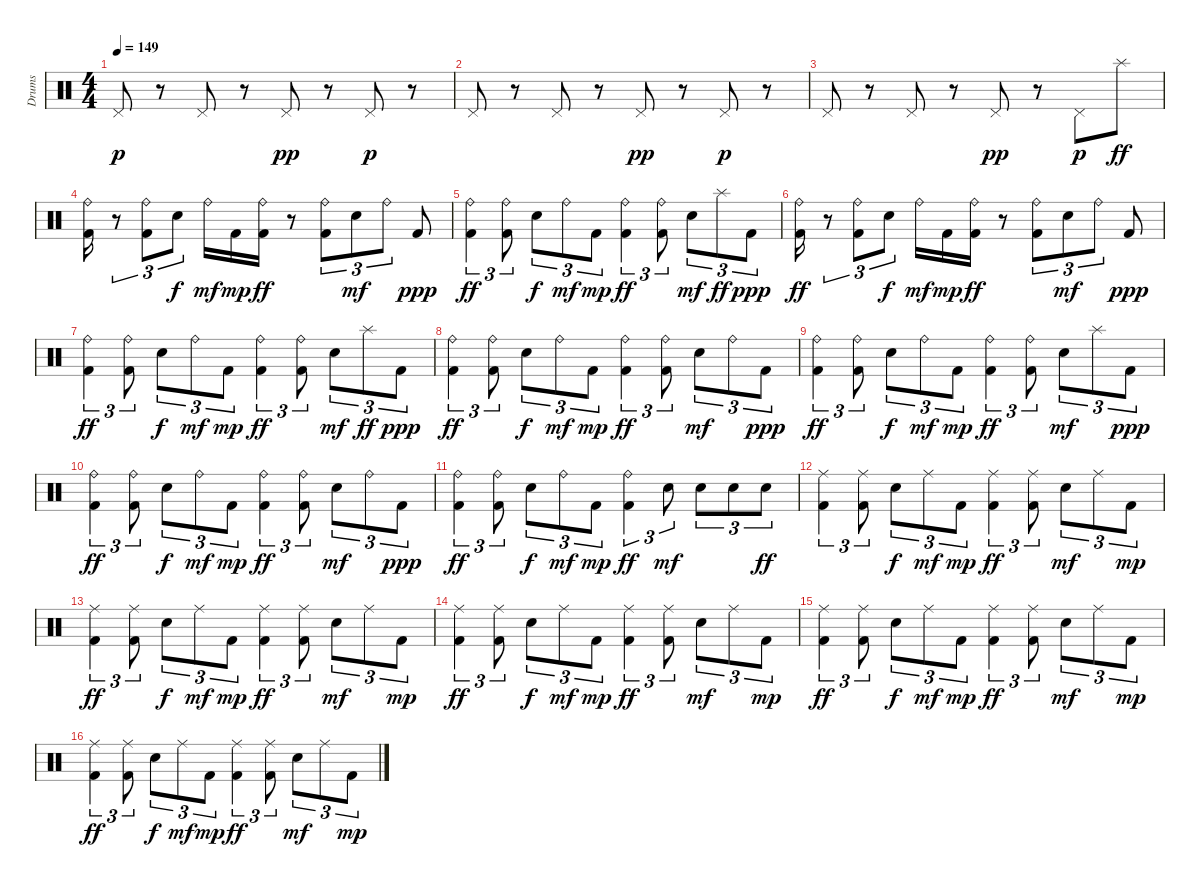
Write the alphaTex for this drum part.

\track ("Drums" "Drums") {instrument percussion}
\staff {score}
\articulation defaults
\ts (4 4)
\tempo 149
\clef neutral
\ks c "Pedal Hi-Hat (hit)".8{dy p}
r.8 "Pedal Hi-Hat (hit)".8 r.8 "Pedal Hi-Hat (hit)".8{dy pp} r.8 "Pedal Hi-Hat (hit)".8{dy p} r.8 |
"Pedal Hi-Hat (hit)".8 r.8 "Pedal Hi-Hat (hit)".8 r.8 "Pedal Hi-Hat (hit)".8{dy pp} r.8 "Pedal Hi-Hat (hit)".8{dy p} r.8 |
"Pedal Hi-Hat (hit)".8 r.8 "Pedal Hi-Hat (hit)".8 r.8 "Pedal Hi-Hat (hit)".8{dy pp} r.8 "Pedal Hi-Hat (hit)".8{dy p} "Splash (hit)".8{dy ff} |
("Kick (hit) 2" "Ride (bell)").16 r.8{tu (3 2)} ("Kick (hit) 2" "Ride (bell)").8{tu (3 2)} "Snare (hit) 2".8{tu (3 2) dy f} "Ride (bell)".16{dy mf} "Kick (hit) 2".16{dy mp} ("Kick (hit) 2" "Ride (bell)").16{dy ff} r.8 ("Kick (hit) 2" "Ride (bell)").8{tu (3 2)} "Snare (hit) 2".8{tu (3 2) dy mf} "Ride (bell)".8{tu (3 2)} "Kick (hit) 2".8{dy ppp} |
("Kick (hit) 2" "Ride (bell)").4{tu (3 2) dy ff} ("Kick (hit) 2" "Ride (bell)").8{tu (3 2)} "Snare (hit) 2".8{tu (3 2) dy f} "Ride (bell)".8{tu (3 2) dy mf} "Kick (hit) 2".8{tu (3 2) dy mp} ("Kick (hit) 2" "Ride (bell)").4{tu (3 2) dy ff} ("Kick (hit) 2" "Ride (bell)").8{tu (3 2)} "Snare (hit) 2".8{tu (3 2) dy mf} "Splash (hit)".8{tu (3 2) dy ff} "Kick (hit) 2".8{tu (3 2) dy ppp} |
("Kick (hit) 2" "Ride (bell)").16{dy ff} r.8{tu (3 2)} ("Kick (hit) 2" "Ride (bell)").8{tu (3 2)} "Snare (hit) 2".8{tu (3 2) dy f} "Ride (bell)".16{dy mf} "Kick (hit) 2".16{dy mp} ("Kick (hit) 2" "Ride (bell)").16{dy ff} r.8 ("Kick (hit) 2" "Ride (bell)").8{tu (3 2)} "Snare (hit) 2".8{tu (3 2) dy mf} "Ride (bell)".8{tu (3 2)} "Kick (hit) 2".8{dy ppp} |
("Kick (hit) 2" "Ride (bell)").4{tu (3 2) dy ff} ("Kick (hit) 2" "Ride (bell)").8{tu (3 2)} "Snare (hit) 2".8{tu (3 2) dy f} "Ride (bell)".8{tu (3 2) dy mf} "Kick (hit) 2".8{tu (3 2) dy mp} ("Kick (hit) 2" "Ride (bell)").4{tu (3 2) dy ff} ("Kick (hit) 2" "Ride (bell)").8{tu (3 2)} "Snare (hit) 2".8{tu (3 2) dy mf} "Splash (hit)".8{tu (3 2) dy ff} "Kick (hit) 2".8{tu (3 2) dy ppp} |
("Kick (hit) 2" "Ride (bell)").4{tu (3 2) dy ff} ("Kick (hit) 2" "Ride (bell)").8{tu (3 2)} "Snare (hit) 2".8{tu (3 2) dy f} "Ride (bell)".8{tu (3 2) dy mf} "Kick (hit) 2".8{tu (3 2) dy mp} ("Kick (hit) 2" "Ride (bell)").4{tu (3 2) dy ff} ("Kick (hit) 2" "Ride (bell)").8{tu (3 2)} "Snare (hit) 2".8{tu (3 2) dy mf} "Ride (bell)".8{tu (3 2)} "Kick (hit) 2".8{tu (3 2) dy ppp} |
("Kick (hit) 2" "Ride (bell)").4{tu (3 2) dy ff} ("Kick (hit) 2" "Ride (bell)").8{tu (3 2)} "Snare (hit) 2".8{tu (3 2) dy f} "Ride (bell)".8{tu (3 2) dy mf} "Kick (hit) 2".8{tu (3 2) dy mp} ("Kick (hit) 2" "Ride (bell)").4{tu (3 2) dy ff} ("Kick (hit) 2" "Ride (bell)").8{tu (3 2)} "Snare (hit) 2".8{tu (3 2) dy mf} "Splash (hit)".8{tu (3 2)} "Kick (hit) 2".8{tu (3 2) dy ppp} |
("Kick (hit) 2" "Ride (bell)").4{tu (3 2) dy ff} ("Kick (hit) 2" "Ride (bell)").8{tu (3 2)} "Snare (hit) 2".8{tu (3 2) dy f} "Ride (bell)".8{tu (3 2) dy mf} "Kick (hit) 2".8{tu (3 2) dy mp} ("Kick (hit) 2" "Ride (bell)").4{tu (3 2) dy ff} ("Kick (hit) 2" "Ride (bell)").8{tu (3 2)} "Snare (hit) 2".8{tu (3 2) dy mf} "Ride (bell)".8{tu (3 2)} "Kick (hit) 2".8{tu (3 2) dy ppp} |
("Kick (hit) 2" "Ride (bell)").4{tu (3 2) dy ff} ("Kick (hit) 2" "Ride (bell)").8{tu (3 2)} "Snare (hit) 2".8{tu (3 2) dy f} "Ride (bell)".8{tu (3 2) dy mf} "Kick (hit) 2".8{tu (3 2) dy mp} ("Kick (hit) 2" "Ride (bell)").4{tu (3 2) dy ff} "Snare (hit) 2".8{tu (3 2) dy mf} "Snare (hit) 2".8{tu (3 2)} "Snare (hit) 2".8{tu (3 2)} "Snare (hit) 2".8{tu (3 2) dy ff} |
("Kick (hit) 2" "Ride (middle)").4{tu (3 2)} ("Kick (hit) 2" "Ride (middle)").8{tu (3 2)} "Snare (hit) 2".8{tu (3 2) dy f} "Ride (middle)".8{tu (3 2) dy mf} "Kick (hit) 2".8{tu (3 2) dy mp} ("Kick (hit) 2" "Ride (middle)").4{tu (3 2) dy ff} ("Kick (hit) 2" "Ride (middle)").8{tu (3 2)} "Snare (hit) 2".8{tu (3 2) dy mf} "Ride (middle)".8{tu (3 2)} "Kick (hit) 2".8{tu (3 2) dy mp} |
("Kick (hit) 2" "Ride (middle)").4{tu (3 2) dy ff} ("Kick (hit) 2" "Ride (middle)").8{tu (3 2)} "Snare (hit) 2".8{tu (3 2) dy f} "Ride (middle)".8{tu (3 2) dy mf} "Kick (hit) 2".8{tu (3 2) dy mp} ("Kick (hit) 2" "Ride (middle)").4{tu (3 2) dy ff} ("Kick (hit) 2" "Ride (middle)").8{tu (3 2)} "Snare (hit) 2".8{tu (3 2) dy mf} "Ride (middle)".8{tu (3 2)} "Kick (hit) 2".8{tu (3 2) dy mp} |
("Kick (hit) 2" "Ride (middle)").4{tu (3 2) dy ff} ("Kick (hit) 2" "Ride (middle)").8{tu (3 2)} "Snare (hit) 2".8{tu (3 2) dy f} "Ride (middle)".8{tu (3 2) dy mf} "Kick (hit) 2".8{tu (3 2) dy mp} ("Kick (hit) 2" "Ride (middle)").4{tu (3 2) dy ff} ("Kick (hit) 2" "Ride (middle)").8{tu (3 2)} "Snare (hit) 2".8{tu (3 2) dy mf} "Ride (middle)".8{tu (3 2)} "Kick (hit) 2".8{tu (3 2) dy mp} |
("Kick (hit) 2" "Ride (middle)").4{tu (3 2) dy ff} ("Kick (hit) 2" "Ride (middle)").8{tu (3 2)} "Snare (hit) 2".8{tu (3 2) dy f} "Ride (middle)".8{tu (3 2) dy mf} "Kick (hit) 2".8{tu (3 2) dy mp} ("Kick (hit) 2" "Ride (middle)").4{tu (3 2) dy ff} ("Kick (hit) 2" "Ride (middle)").8{tu (3 2)} "Snare (hit) 2".8{tu (3 2) dy mf} "Ride (middle)".8{tu (3 2)} "Kick (hit) 2".8{tu (3 2) dy mp} |
("Kick (hit) 2" "Ride (middle)").4{tu (3 2) dy ff} ("Kick (hit) 2" "Ride (middle)").8{tu (3 2)} "Snare (hit) 2".8{tu (3 2) dy f} "Ride (middle)".8{tu (3 2) dy mf} "Kick (hit) 2".8{tu (3 2) dy mp} ("Kick (hit) 2" "Ride (middle)").4{tu (3 2) dy ff} ("Kick (hit) 2" "Ride (middle)").8{tu (3 2)} "Snare (hit) 2".8{tu (3 2) dy mf} "Ride (middle)".8{tu (3 2)} "Kick (hit) 2".8{tu (3 2) dy mp}
